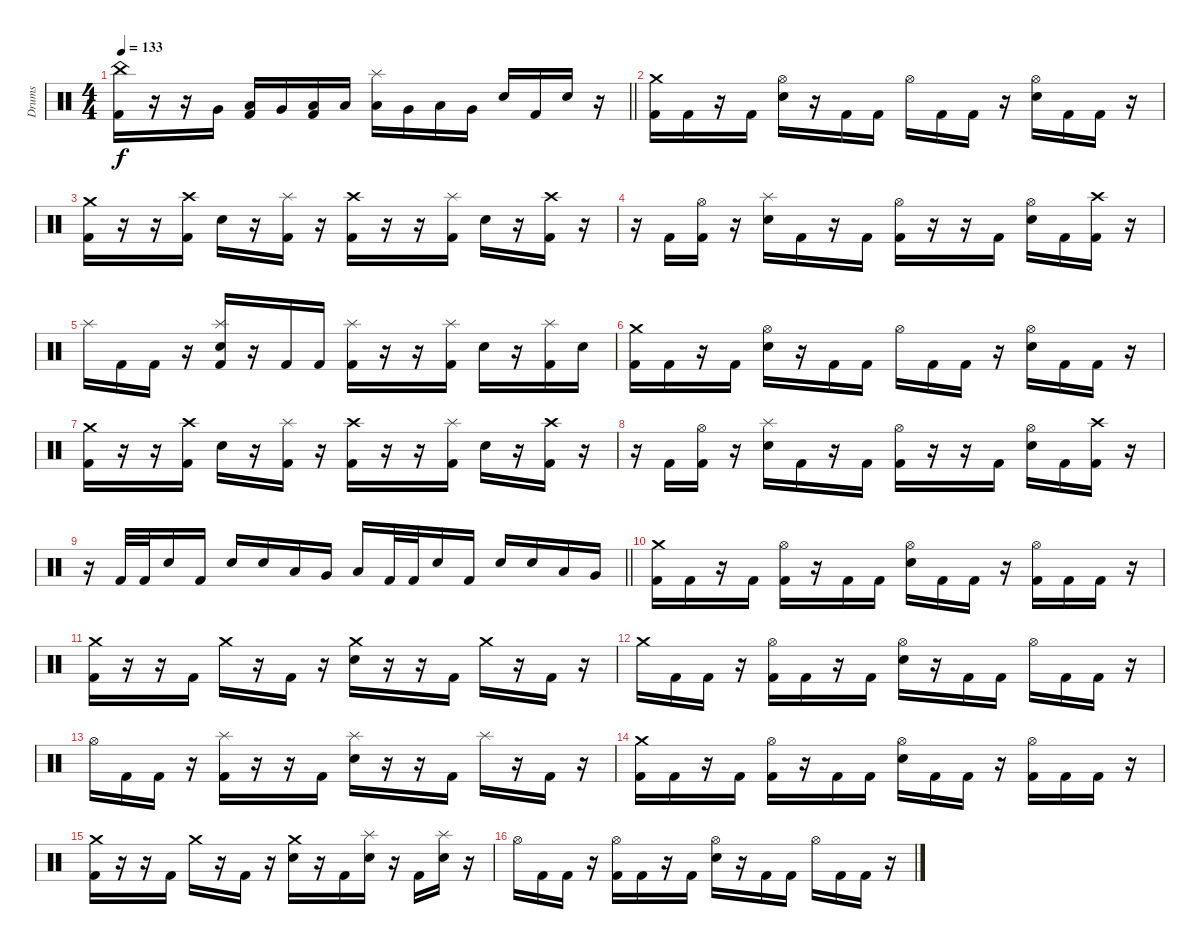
\track ("Drums" "Drums") {instrument percussion}
\staff {score}
\articulation defaults
\ts (4 4)
\tempo 133
\clef neutral
\barLineRight lightlight
\ks c
("China (hit)" "Kick (hit) 2").16{dy f} r.16 r.16 "Very Low Tom (hit)".16 ("Low Tom (hit)" "Kick (hit) 2").16 "Very Low Tom (hit)".16 ("Low Floor Tom (hit)" "Kick (hit) 2").16 "Low Floor Tom (hit)".16 ("Splash (hit)" "Low Tom (hit)").16 "Very Low Tom (hit)".16 "Low Floor Tom (hit)".16 "Very Low Tom (hit)".16 "Electric Snare (hit)".16 "Kick (hit) 2".16 "Electric Snare (hit)".16 r.16 |
\section ("" "")
("Crash medium (hit)" "Kick (hit) 2").16 "Kick (hit) 2".16 r.16 "Kick (hit) 2".16 ("Hi-Hat (open)" "Electric Snare (hit)").16 r.16 "Kick (hit) 2".16 "Kick (hit) 2".16 "Hi-Hat (open)".16 "Kick (hit) 2".16 "Kick (hit) 2".16 r.16 ("Hi-Hat (open)" "Electric Snare (hit)").16 "Kick (hit) 2".16 "Kick (hit) 2".16 r.16 |
("Crash medium (hit)" "Kick (hit) 2").16 r.16 r.16 ("Crash high (hit)" "Kick (hit) 2").16 "Electric Snare (hit)".16 r.16 ("Splash (hit)" "Kick (hit) 2").16 r.16 ("Crash high (hit)" "Kick (hit) 2").16 r.16 r.16 ("Splash (hit)" "Kick (hit) 2").16 "Electric Snare (hit)".16 r.16 ("Crash high (hit)" "Kick (hit) 2").16 r.16 |
r.16 "Kick (hit) 2".16 ("Hi-Hat (open)" "Kick (hit) 2").16 r.16 ("Splash (hit)" "Electric Snare (hit)").16 "Kick (hit) 2".16 r.16 "Kick (hit) 2".16 ("Hi-Hat (open)" "Kick (hit) 2").16 r.16 r.16 "Kick (hit) 2".16 ("Hi-Hat (open)" "Electric Snare (hit)").16 "Kick (hit) 2".16 ("Crash high (hit)" "Kick (hit) 2").16 r.16 |
"Splash (hit)".16 "Kick (hit) 2".16 "Kick (hit) 2".16 r.16 ("Splash (hit)" "Electric Snare (hit)" "Kick (hit) 2").16 r.16 "Kick (hit) 2".16 "Kick (hit) 2".16 ("Splash (hit)" "Kick (hit) 2").16 r.16 r.16 ("Splash (hit)" "Kick (hit) 2").16 "Electric Snare (hit)".16 r.16 ("Splash (hit)" "Kick (hit) 2").16 "Electric Snare (hit)".16 |
("Crash medium (hit)" "Kick (hit) 2").16 "Kick (hit) 2".16 r.16 "Kick (hit) 2".16 ("Hi-Hat (open)" "Electric Snare (hit)").16 r.16 "Kick (hit) 2".16 "Kick (hit) 2".16 "Hi-Hat (open)".16 "Kick (hit) 2".16 "Kick (hit) 2".16 r.16 ("Hi-Hat (open)" "Electric Snare (hit)").16 "Kick (hit) 2".16 "Kick (hit) 2".16 r.16 |
("Crash medium (hit)" "Kick (hit) 2").16 r.16 r.16 ("Crash high (hit)" "Kick (hit) 2").16 "Electric Snare (hit)".16 r.16 ("Splash (hit)" "Kick (hit) 2").16 r.16 ("Crash high (hit)" "Kick (hit) 2").16 r.16 r.16 ("Splash (hit)" "Kick (hit) 2").16 "Electric Snare (hit)".16 r.16 ("Crash high (hit)" "Kick (hit) 2").16 r.16 |
r.16 "Kick (hit) 2".16 ("Hi-Hat (open)" "Kick (hit) 2").16 r.16 ("Splash (hit)" "Electric Snare (hit)").16 "Kick (hit) 2".16 r.16 "Kick (hit) 2".16 ("Hi-Hat (open)" "Kick (hit) 2").16 r.16 r.16 "Kick (hit) 2".16 ("Hi-Hat (open)" "Electric Snare (hit)").16 "Kick (hit) 2".16 ("Crash high (hit)" "Kick (hit) 2").16 r.16 |
\barLineRight lightlight
r.16 "Kick (hit) 2".32 "Kick (hit) 2".32 "Electric Snare (hit)".16 "Kick (hit) 2".16 "Electric Snare (hit)".16 "Electric Snare (hit)".16 "Low Tom (hit)".16 "Very Low Tom (hit)".16 "Low Floor Tom (hit)".16 "Kick (hit) 2".32 "Kick (hit) 2".32 "Electric Snare (hit)".16 "Kick (hit) 2".16 "Electric Snare (hit)".16 "Electric Snare (hit)".16 "Low Tom (hit)".16 "Very Low Tom (hit)".16 |
\section ("" "")
("Crash medium (hit)" "Kick (hit) 2").16 "Kick (hit) 2".16 r.16 "Kick (hit) 2".16 ("Hi-Hat (open)" "Kick (hit) 2").16 r.16 "Kick (hit) 2".16 "Kick (hit) 2".16 ("Hi-Hat (open)" "Electric Snare (hit)").16 "Kick (hit) 2".16 "Kick (hit) 2".16 r.16 ("Hi-Hat (open)" "Kick (hit) 2").16 "Kick (hit) 2".16 "Kick (hit) 2".16 r.16 |
("Crash medium (hit)" "Kick (hit) 2").16 r.16 r.16 "Kick (hit) 2".16 "Crash medium (hit)".16 r.16 "Kick (hit) 2".16 r.16 ("Crash medium (hit)" "Electric Snare (hit)").16 r.16 r.16 "Kick (hit) 2".16 "Crash medium (hit)".16 r.16 "Kick (hit) 2".16 r.16 |
"Crash medium (hit)".16 "Kick (hit) 2".16 "Kick (hit) 2".16 r.16 ("Hi-Hat (open)" "Kick (hit) 2").16 "Kick (hit) 2".16 r.16 "Kick (hit) 2".16 ("Hi-Hat (open)" "Electric Snare (hit)").16 r.16 "Kick (hit) 2".16 "Kick (hit) 2".16 "Hi-Hat (open)".16 "Kick (hit) 2".16 "Kick (hit) 2".16 r.16 |
"Hi-Hat (open)".16 "Kick (hit) 2".16 "Kick (hit) 2".16 r.16 ("Splash (hit)" "Kick (hit) 2").16 r.16 r.16 "Kick (hit) 2".16 ("Splash (hit)" "Electric Snare (hit)").16 r.16 r.16 "Kick (hit) 2".16 "Splash (hit)".16 r.16 "Kick (hit) 2".16 r.16 |
("Crash medium (hit)" "Kick (hit) 2").16 "Kick (hit) 2".16 r.16 "Kick (hit) 2".16 ("Hi-Hat (open)" "Kick (hit) 2").16 r.16 "Kick (hit) 2".16 "Kick (hit) 2".16 ("Hi-Hat (open)" "Electric Snare (hit)").16 "Kick (hit) 2".16 "Kick (hit) 2".16 r.16 ("Hi-Hat (open)" "Kick (hit) 2").16 "Kick (hit) 2".16 "Kick (hit) 2".16 r.16 |
("Crash medium (hit)" "Kick (hit) 2").16 r.16 r.16 "Kick (hit) 2".16 "Crash medium (hit)".16 r.16 "Kick (hit) 2".16 r.16 ("Crash medium (hit)" "Electric Snare (hit)").16 r.16 "Kick (hit) 2".16 ("Splash (hit)" "Electric Snare (hit)").16 r.16 "Kick (hit) 2".16 ("Splash (hit)" "Electric Snare (hit)").16 r.16 |
"Hi-Hat (open)".16 "Kick (hit) 2".16 "Kick (hit) 2".16 r.16 ("Hi-Hat (open)" "Kick (hit) 2").16 "Kick (hit) 2".16 r.16 "Kick (hit) 2".16 ("Hi-Hat (open)" "Electric Snare (hit)").16 r.16 "Kick (hit) 2".16 "Kick (hit) 2".16 "Hi-Hat (open)".16 "Kick (hit) 2".16 "Kick (hit) 2".16 r.16
